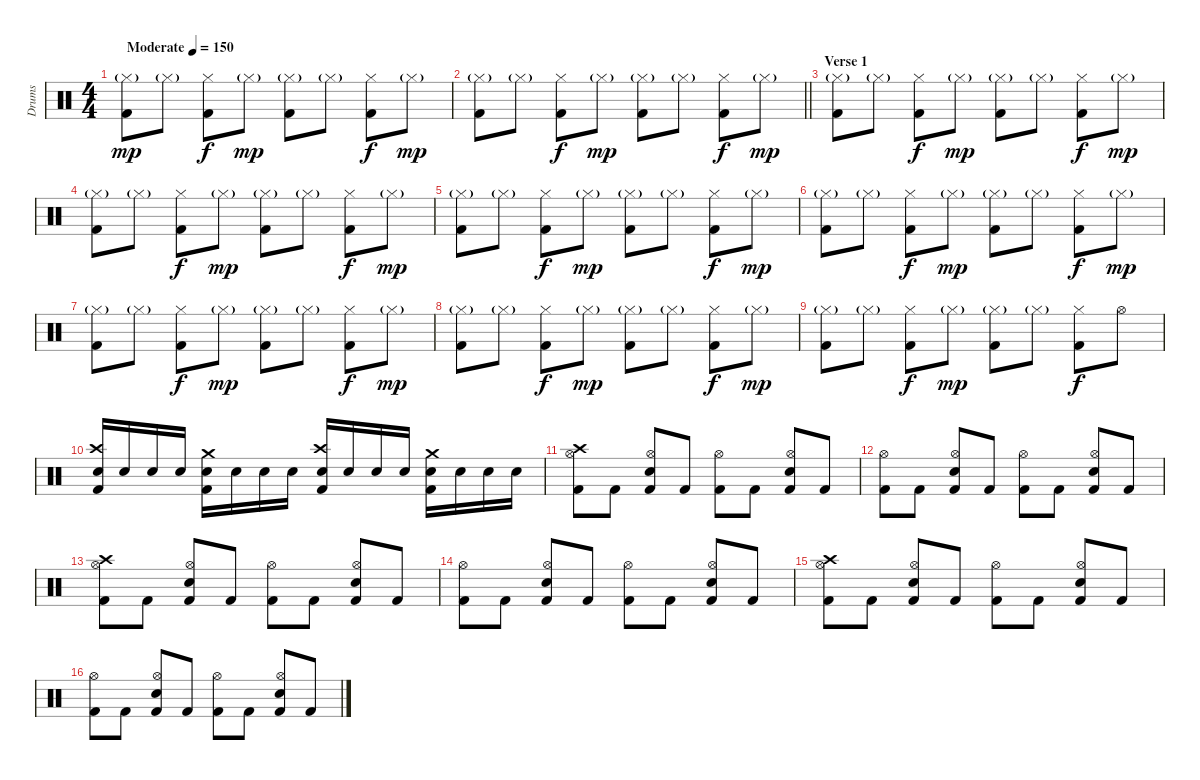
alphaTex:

\track ("Drums" "Drums") {instrument percussion}
\staff {score}
\articulation defaults
\ts (4 4)
\tempo (150 "Moderate")
\clef neutral
\ks c
("Hi-Hat (closed)"{g} "Kick (hit) 2").8{dy mp} "Hi-Hat (closed)"{g}.8 ("Hi-Hat (closed)" "Kick (hit) 2").8{dy f} "Hi-Hat (closed)"{g}.8{dy mp} ("Hi-Hat (closed)"{g} "Kick (hit) 2").8 "Hi-Hat (closed)"{g}.8 ("Hi-Hat (closed)" "Kick (hit) 2").8{dy f} "Hi-Hat (closed)"{g}.8{dy mp} |
\barLineRight lightlight
("Hi-Hat (closed)"{g} "Kick (hit) 2").8 "Hi-Hat (closed)"{g}.8 ("Hi-Hat (closed)" "Kick (hit) 2").8{dy f} "Hi-Hat (closed)"{g}.8{dy mp} ("Hi-Hat (closed)"{g} "Kick (hit) 2").8 "Hi-Hat (closed)"{g}.8 ("Hi-Hat (closed)" "Kick (hit) 2").8{dy f} "Hi-Hat (closed)"{g}.8{dy mp} |
\section ("" "Verse 1")
("Hi-Hat (closed)"{g} "Kick (hit) 2").8 "Hi-Hat (closed)"{g}.8 ("Hi-Hat (closed)" "Kick (hit) 2").8{dy f} "Hi-Hat (closed)"{g}.8{dy mp} ("Hi-Hat (closed)"{g} "Kick (hit) 2").8 "Hi-Hat (closed)"{g}.8 ("Hi-Hat (closed)" "Kick (hit) 2").8{dy f} "Hi-Hat (closed)"{g}.8{dy mp} |
("Hi-Hat (closed)"{g} "Kick (hit) 2").8 "Hi-Hat (closed)"{g}.8 ("Hi-Hat (closed)" "Kick (hit) 2").8{dy f} "Hi-Hat (closed)"{g}.8{dy mp} ("Hi-Hat (closed)"{g} "Kick (hit) 2").8 "Hi-Hat (closed)"{g}.8 ("Hi-Hat (closed)" "Kick (hit) 2").8{dy f} "Hi-Hat (closed)"{g}.8{dy mp} |
("Hi-Hat (closed)"{g} "Kick (hit) 2").8 "Hi-Hat (closed)"{g}.8 ("Hi-Hat (closed)" "Kick (hit) 2").8{dy f} "Hi-Hat (closed)"{g}.8{dy mp} ("Hi-Hat (closed)"{g} "Kick (hit) 2").8 "Hi-Hat (closed)"{g}.8 ("Hi-Hat (closed)" "Kick (hit) 2").8{dy f} "Hi-Hat (closed)"{g}.8{dy mp} |
("Hi-Hat (closed)"{g} "Kick (hit) 2").8 "Hi-Hat (closed)"{g}.8 ("Hi-Hat (closed)" "Kick (hit) 2").8{dy f} "Hi-Hat (closed)"{g}.8{dy mp} ("Hi-Hat (closed)"{g} "Kick (hit) 2").8 "Hi-Hat (closed)"{g}.8 ("Hi-Hat (closed)" "Kick (hit) 2").8{dy f} "Hi-Hat (closed)"{g}.8{dy mp} |
("Hi-Hat (closed)"{g} "Kick (hit) 2").8 "Hi-Hat (closed)"{g}.8 ("Hi-Hat (closed)" "Kick (hit) 2").8{dy f} "Hi-Hat (closed)"{g}.8{dy mp} ("Hi-Hat (closed)"{g} "Kick (hit) 2").8 "Hi-Hat (closed)"{g}.8 ("Hi-Hat (closed)" "Kick (hit) 2").8{dy f} "Hi-Hat (closed)"{g}.8{dy mp} |
("Hi-Hat (closed)"{g} "Kick (hit) 2").8 "Hi-Hat (closed)"{g}.8 ("Hi-Hat (closed)" "Kick (hit) 2").8{dy f} "Hi-Hat (closed)"{g}.8{dy mp} ("Hi-Hat (closed)"{g} "Kick (hit) 2").8 "Hi-Hat (closed)"{g}.8 ("Hi-Hat (closed)" "Kick (hit) 2").8{dy f} "Hi-Hat (closed)"{g}.8{dy mp} |
("Hi-Hat (closed)"{g} "Kick (hit) 2").8 "Hi-Hat (closed)"{g}.8 ("Hi-Hat (closed)" "Kick (hit) 2").8{dy f} "Hi-Hat (closed)"{g}.8{dy mp} ("Hi-Hat (closed)"{g} "Kick (hit) 2").8 "Hi-Hat (closed)"{g}.8 ("Hi-Hat (closed)" "Kick (hit) 2").8{dy f} "Hi-Hat (open)".8 |
("Crash high (hit)" "Snare (hit) 2" "Kick (hit) 2").16 "Snare (hit) 2".16 "Snare (hit) 2".16 "Snare (hit) 2".16 ("Crash medium (hit)" "Snare (hit) 2" "Kick (hit) 2").16 "Snare (hit) 2".16 "Snare (hit) 2".16 "Snare (hit) 2".16 ("Crash high (hit)" "Snare (hit) 2" "Kick (hit) 2").16 "Snare (hit) 2".16 "Snare (hit) 2".16 "Snare (hit) 2".16 ("Crash medium (hit)" "Snare (hit) 2" "Kick (hit) 2").16 "Snare (hit) 2".16 "Snare (hit) 2".16 "Snare (hit) 2".16 |
("Crash high (hit)" "Hi-Hat (open)" "Kick (hit) 2").8 "Kick (hit) 2".8 ("Hi-Hat (open)" "Snare (hit) 2" "Kick (hit) 2").8 "Kick (hit) 2".8 ("Hi-Hat (open)" "Kick (hit) 2").8 "Kick (hit) 2".8 ("Hi-Hat (open)" "Snare (hit) 2" "Kick (hit) 2").8 "Kick (hit) 2".8 |
("Hi-Hat (open)" "Kick (hit) 2").8 "Kick (hit) 2".8 ("Hi-Hat (open)" "Snare (hit) 2" "Kick (hit) 2").8 "Kick (hit) 2".8 ("Hi-Hat (open)" "Kick (hit) 2").8 "Kick (hit) 2".8 ("Hi-Hat (open)" "Snare (hit) 2" "Kick (hit) 2").8 "Kick (hit) 2".8 |
("Crash high (hit)" "Hi-Hat (open)" "Kick (hit) 2").8 "Kick (hit) 2".8 ("Hi-Hat (open)" "Snare (hit) 2" "Kick (hit) 2").8 "Kick (hit) 2".8 ("Hi-Hat (open)" "Kick (hit) 2").8 "Kick (hit) 2".8 ("Hi-Hat (open)" "Snare (hit) 2" "Kick (hit) 2").8 "Kick (hit) 2".8 |
("Hi-Hat (open)" "Kick (hit) 2").8 "Kick (hit) 2".8 ("Hi-Hat (open)" "Snare (hit) 2" "Kick (hit) 2").8 "Kick (hit) 2".8 ("Hi-Hat (open)" "Kick (hit) 2").8 "Kick (hit) 2".8 ("Hi-Hat (open)" "Snare (hit) 2" "Kick (hit) 2").8 "Kick (hit) 2".8 |
("Crash high (hit)" "Hi-Hat (open)" "Kick (hit) 2").8 "Kick (hit) 2".8 ("Hi-Hat (open)" "Snare (hit) 2" "Kick (hit) 2").8 "Kick (hit) 2".8 ("Hi-Hat (open)" "Kick (hit) 2").8 "Kick (hit) 2".8 ("Hi-Hat (open)" "Snare (hit) 2" "Kick (hit) 2").8 "Kick (hit) 2".8 |
("Hi-Hat (open)" "Kick (hit) 2").8 "Kick (hit) 2".8 ("Hi-Hat (open)" "Snare (hit) 2" "Kick (hit) 2").8 "Kick (hit) 2".8 ("Hi-Hat (open)" "Kick (hit) 2").8 "Kick (hit) 2".8 ("Hi-Hat (open)" "Snare (hit) 2" "Kick (hit) 2").8 "Kick (hit) 2".8
